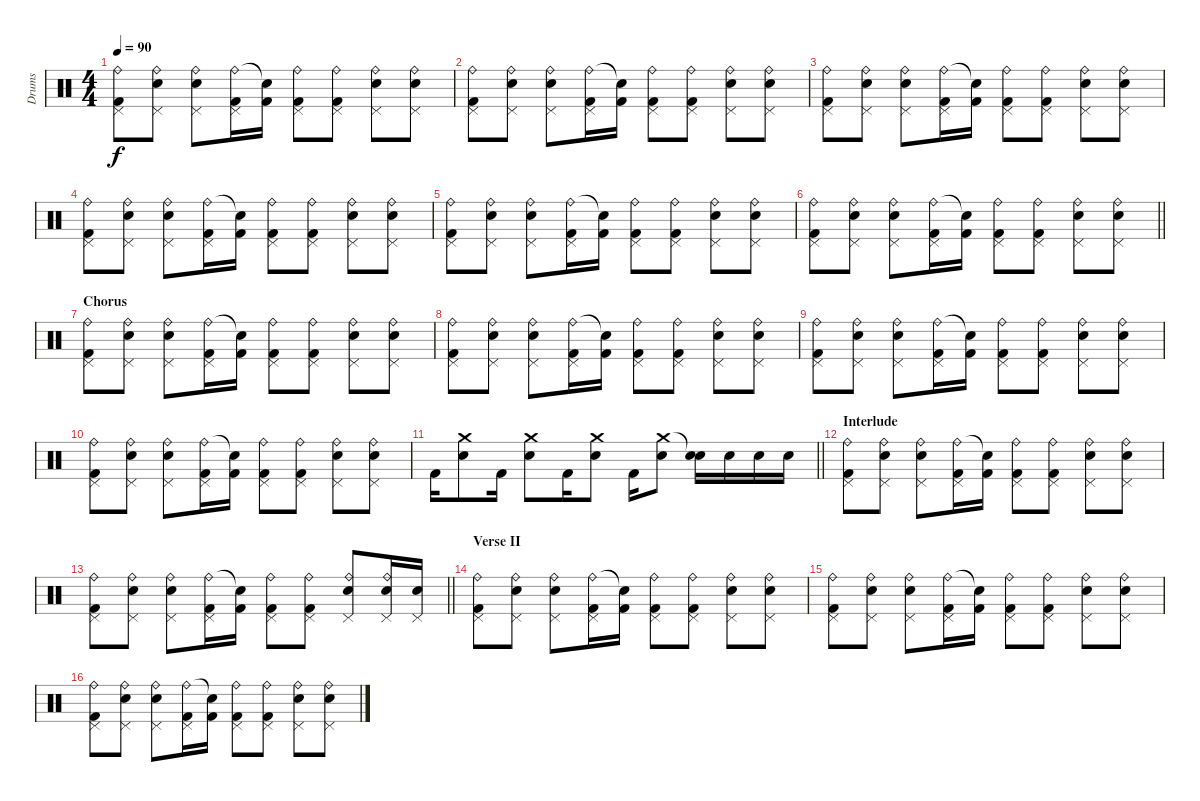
\track ("Drums" "Drums") {instrument percussion}
\staff {score}
\articulation defaults
\ts (4 4)
\tempo 90
\clef neutral
\ks c
("Ride (bell)" "Pedal Hi-Hat (hit)" "Kick (hit) 2").8{dy f} ("Ride (bell)" "Pedal Hi-Hat (hit)" "Snare (hit)").8 ("Ride (bell)" "Pedal Hi-Hat (hit)" "Electric Snare (hit)").8 ("Ride (bell)" "Pedal Hi-Hat (hit)" "Kick (hit) 2").16 ("Snare (hit)"{t} "Kick (hit) 2").16 ("Ride (bell)" "Pedal Hi-Hat (hit)" "Kick (hit) 2").8 ("Ride (bell)" "Pedal Hi-Hat (hit)" "Kick (hit) 2").8 ("Ride (bell)" "Pedal Hi-Hat (hit)" "Electric Snare (hit)").8 ("Ride (bell)" "Pedal Hi-Hat (hit)" "Snare (hit)").8 |
("Ride (bell)" "Pedal Hi-Hat (hit)" "Kick (hit) 2").8 ("Ride (bell)" "Pedal Hi-Hat (hit)" "Snare (hit)").8 ("Ride (bell)" "Pedal Hi-Hat (hit)" "Electric Snare (hit)").8 ("Ride (bell)" "Pedal Hi-Hat (hit)" "Kick (hit) 2").16 ("Snare (hit)"{t} "Kick (hit) 2").16 ("Ride (bell)" "Pedal Hi-Hat (hit)" "Kick (hit) 2").8 ("Ride (bell)" "Pedal Hi-Hat (hit)" "Kick (hit) 2").8 ("Ride (bell)" "Pedal Hi-Hat (hit)" "Electric Snare (hit)").8 ("Ride (bell)" "Pedal Hi-Hat (hit)" "Snare (hit)").8 |
("Ride (bell)" "Pedal Hi-Hat (hit)" "Kick (hit) 2").8 ("Ride (bell)" "Pedal Hi-Hat (hit)" "Snare (hit)").8 ("Ride (bell)" "Pedal Hi-Hat (hit)" "Electric Snare (hit)").8 ("Ride (bell)" "Pedal Hi-Hat (hit)" "Kick (hit) 2").16 ("Snare (hit)"{t} "Kick (hit) 2").16 ("Ride (bell)" "Pedal Hi-Hat (hit)" "Kick (hit) 2").8 ("Ride (bell)" "Pedal Hi-Hat (hit)" "Kick (hit) 2").8 ("Ride (bell)" "Pedal Hi-Hat (hit)" "Electric Snare (hit)").8 ("Ride (bell)" "Pedal Hi-Hat (hit)" "Snare (hit)").8 |
("Ride (bell)" "Pedal Hi-Hat (hit)" "Kick (hit) 2").8 ("Ride (bell)" "Pedal Hi-Hat (hit)" "Snare (hit)").8 ("Ride (bell)" "Pedal Hi-Hat (hit)" "Electric Snare (hit)").8 ("Ride (bell)" "Pedal Hi-Hat (hit)" "Kick (hit) 2").16 ("Snare (hit)"{t} "Kick (hit) 2").16 ("Ride (bell)" "Pedal Hi-Hat (hit)" "Kick (hit) 2").8 ("Ride (bell)" "Pedal Hi-Hat (hit)" "Kick (hit) 2").8 ("Ride (bell)" "Pedal Hi-Hat (hit)" "Electric Snare (hit)").8 ("Ride (bell)" "Pedal Hi-Hat (hit)" "Snare (hit)").8 |
("Ride (bell)" "Pedal Hi-Hat (hit)" "Kick (hit) 2").8 ("Ride (bell)" "Pedal Hi-Hat (hit)" "Snare (hit)").8 ("Ride (bell)" "Pedal Hi-Hat (hit)" "Electric Snare (hit)").8 ("Ride (bell)" "Pedal Hi-Hat (hit)" "Kick (hit) 2").16 ("Snare (hit)"{t} "Kick (hit) 2").16 ("Ride (bell)" "Pedal Hi-Hat (hit)" "Kick (hit) 2").8 ("Ride (bell)" "Pedal Hi-Hat (hit)" "Kick (hit) 2").8 ("Ride (bell)" "Pedal Hi-Hat (hit)" "Electric Snare (hit)").8 ("Ride (bell)" "Pedal Hi-Hat (hit)" "Snare (hit)").8 |
\barLineRight lightlight
("Ride (bell)" "Pedal Hi-Hat (hit)" "Kick (hit) 2").8 ("Ride (bell)" "Pedal Hi-Hat (hit)" "Snare (hit)").8 ("Ride (bell)" "Pedal Hi-Hat (hit)" "Electric Snare (hit)").8 ("Ride (bell)" "Pedal Hi-Hat (hit)" "Kick (hit) 2").16 ("Snare (hit)"{t} "Kick (hit) 2").16 ("Ride (bell)" "Pedal Hi-Hat (hit)" "Kick (hit) 2").8 ("Ride (bell)" "Pedal Hi-Hat (hit)" "Kick (hit) 2").8 ("Ride (bell)" "Pedal Hi-Hat (hit)" "Electric Snare (hit)").8 ("Ride (bell)" "Pedal Hi-Hat (hit)" "Snare (hit)").8 |
\section ("" "Chorus")
("Ride (bell)" "Pedal Hi-Hat (hit)" "Kick (hit) 2").8 ("Ride (bell)" "Pedal Hi-Hat (hit)" "Snare (hit)").8 ("Ride (bell)" "Pedal Hi-Hat (hit)" "Electric Snare (hit)").8 ("Ride (bell)" "Pedal Hi-Hat (hit)" "Kick (hit) 2").16 ("Snare (hit)"{t} "Kick (hit) 2").16 ("Ride (bell)" "Pedal Hi-Hat (hit)" "Kick (hit) 2").8 ("Ride (bell)" "Pedal Hi-Hat (hit)" "Kick (hit) 2").8 ("Ride (bell)" "Pedal Hi-Hat (hit)" "Electric Snare (hit)").8 ("Ride (bell)" "Pedal Hi-Hat (hit)" "Snare (hit)").8 |
("Ride (bell)" "Pedal Hi-Hat (hit)" "Kick (hit) 2").8 ("Ride (bell)" "Pedal Hi-Hat (hit)" "Snare (hit)").8 ("Ride (bell)" "Pedal Hi-Hat (hit)" "Electric Snare (hit)").8 ("Ride (bell)" "Pedal Hi-Hat (hit)" "Kick (hit) 2").16 ("Snare (hit)"{t} "Kick (hit) 2").16 ("Ride (bell)" "Pedal Hi-Hat (hit)" "Kick (hit) 2").8 ("Ride (bell)" "Pedal Hi-Hat (hit)" "Kick (hit) 2").8 ("Ride (bell)" "Pedal Hi-Hat (hit)" "Electric Snare (hit)").8 ("Ride (bell)" "Pedal Hi-Hat (hit)" "Snare (hit)").8 |
("Ride (bell)" "Pedal Hi-Hat (hit)" "Kick (hit) 2").8 ("Ride (bell)" "Pedal Hi-Hat (hit)" "Snare (hit)").8 ("Ride (bell)" "Pedal Hi-Hat (hit)" "Electric Snare (hit)").8 ("Ride (bell)" "Pedal Hi-Hat (hit)" "Kick (hit) 2").16 ("Snare (hit)"{t} "Kick (hit) 2").16 ("Ride (bell)" "Pedal Hi-Hat (hit)" "Kick (hit) 2").8 ("Ride (bell)" "Pedal Hi-Hat (hit)" "Kick (hit) 2").8 ("Ride (bell)" "Pedal Hi-Hat (hit)" "Electric Snare (hit)").8 ("Ride (bell)" "Pedal Hi-Hat (hit)" "Snare (hit)").8 |
("Ride (bell)" "Pedal Hi-Hat (hit)" "Kick (hit) 2").8 ("Ride (bell)" "Pedal Hi-Hat (hit)" "Snare (hit)").8 ("Ride (bell)" "Pedal Hi-Hat (hit)" "Electric Snare (hit)").8 ("Ride (bell)" "Pedal Hi-Hat (hit)" "Kick (hit) 2").16 ("Snare (hit)"{t} "Kick (hit) 2").16 ("Ride (bell)" "Pedal Hi-Hat (hit)" "Kick (hit) 2").8 ("Ride (bell)" "Pedal Hi-Hat (hit)" "Kick (hit) 2").8 ("Ride (bell)" "Pedal Hi-Hat (hit)" "Electric Snare (hit)").8 ("Ride (bell)" "Pedal Hi-Hat (hit)" "Snare (hit)").8 |
\barLineRight lightlight "Kick (hit) 2".16
("Crash medium (hit)" "Electric Snare (hit)").8 "Kick (hit) 2".16 ("Crash medium (hit)" "Electric Snare (hit)").8 "Kick (hit) 2".16 ("Crash medium (hit)" "Electric Snare (hit)").8 "Kick (hit) 2".16 ("Crash medium (hit)" "Electric Snare (hit)").8 ("Snare (hit)"{t} "Electric Snare (hit)").16 "Electric Snare (hit)".16 "Electric Snare (hit)".16 "Electric Snare (hit)".16 |
\section ("" "Interlude")
("Ride (bell)" "Pedal Hi-Hat (hit)" "Kick (hit) 2").8 ("Ride (bell)" "Pedal Hi-Hat (hit)" "Snare (hit)").8 ("Ride (bell)" "Pedal Hi-Hat (hit)" "Electric Snare (hit)").8 ("Ride (bell)" "Pedal Hi-Hat (hit)" "Kick (hit) 2").16 ("Snare (hit)"{t} "Kick (hit) 2").16 ("Ride (bell)" "Pedal Hi-Hat (hit)" "Kick (hit) 2").8 ("Ride (bell)" "Pedal Hi-Hat (hit)" "Kick (hit) 2").8 ("Ride (bell)" "Pedal Hi-Hat (hit)" "Electric Snare (hit)").8 ("Ride (bell)" "Pedal Hi-Hat (hit)" "Snare (hit)").8 |
\barLineRight lightlight
("Ride (bell)" "Pedal Hi-Hat (hit)" "Kick (hit) 2").8 ("Ride (bell)" "Pedal Hi-Hat (hit)" "Snare (hit)").8 ("Ride (bell)" "Pedal Hi-Hat (hit)" "Electric Snare (hit)").8 ("Ride (bell)" "Pedal Hi-Hat (hit)" "Kick (hit) 2").16 ("Snare (hit)"{t} "Kick (hit) 2").16 ("Ride (bell)" "Pedal Hi-Hat (hit)" "Kick (hit) 2").8 ("Ride (bell)" "Pedal Hi-Hat (hit)" "Kick (hit) 2").8 ("Ride (bell)" "Pedal Hi-Hat (hit)" "Electric Snare (hit)").8 ("Ride (bell)" "Pedal Hi-Hat (hit)" "Electric Snare (hit)").16 ("Pedal Hi-Hat (hit)" "Electric Snare (hit)").16 |
\section ("" "Verse II")
("Ride (bell)" "Pedal Hi-Hat (hit)" "Kick (hit) 2").8 ("Ride (bell)" "Pedal Hi-Hat (hit)" "Snare (hit)").8 ("Ride (bell)" "Pedal Hi-Hat (hit)" "Electric Snare (hit)").8 ("Ride (bell)" "Pedal Hi-Hat (hit)" "Kick (hit) 2").16 ("Snare (hit)"{t} "Kick (hit) 2").16 ("Ride (bell)" "Pedal Hi-Hat (hit)" "Kick (hit) 2").8 ("Ride (bell)" "Pedal Hi-Hat (hit)" "Kick (hit) 2").8 ("Ride (bell)" "Pedal Hi-Hat (hit)" "Electric Snare (hit)").8 ("Ride (bell)" "Pedal Hi-Hat (hit)" "Snare (hit)").8 |
("Ride (bell)" "Pedal Hi-Hat (hit)" "Kick (hit) 2").8 ("Ride (bell)" "Pedal Hi-Hat (hit)" "Snare (hit)").8 ("Ride (bell)" "Pedal Hi-Hat (hit)" "Electric Snare (hit)").8 ("Ride (bell)" "Pedal Hi-Hat (hit)" "Kick (hit) 2").16 ("Snare (hit)"{t} "Kick (hit) 2").16 ("Ride (bell)" "Pedal Hi-Hat (hit)" "Kick (hit) 2").8 ("Ride (bell)" "Pedal Hi-Hat (hit)" "Kick (hit) 2").8 ("Ride (bell)" "Pedal Hi-Hat (hit)" "Electric Snare (hit)").8 ("Ride (bell)" "Pedal Hi-Hat (hit)" "Snare (hit)").8 |
("Ride (bell)" "Pedal Hi-Hat (hit)" "Kick (hit) 2").8 ("Ride (bell)" "Pedal Hi-Hat (hit)" "Snare (hit)").8 ("Ride (bell)" "Pedal Hi-Hat (hit)" "Electric Snare (hit)").8 ("Ride (bell)" "Pedal Hi-Hat (hit)" "Kick (hit) 2").16 ("Snare (hit)"{t} "Kick (hit) 2").16 ("Ride (bell)" "Pedal Hi-Hat (hit)" "Kick (hit) 2").8 ("Ride (bell)" "Pedal Hi-Hat (hit)" "Kick (hit) 2").8 ("Ride (bell)" "Pedal Hi-Hat (hit)" "Electric Snare (hit)").8 ("Ride (bell)" "Pedal Hi-Hat (hit)" "Snare (hit)").8
